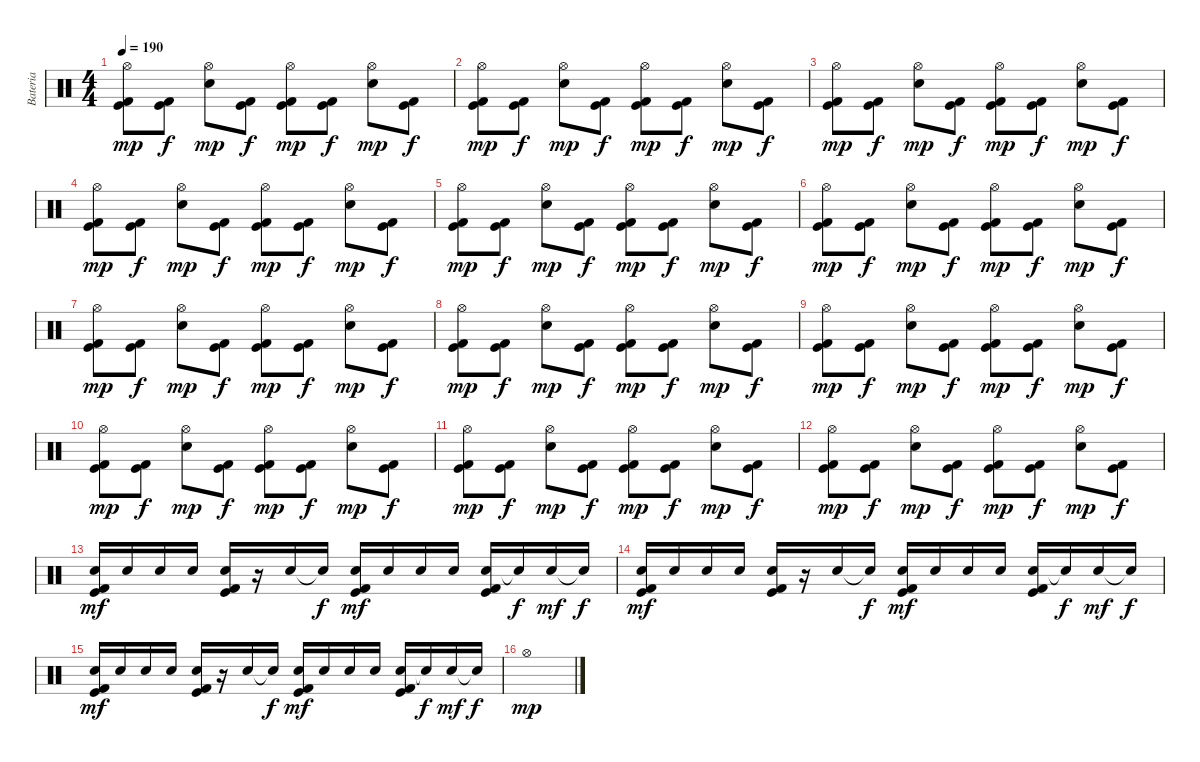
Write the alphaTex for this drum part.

\track ("Bateria" "Bateria") {instrument percussion}
\staff {score}
\articulation defaults
\ts (4 4)
\tempo 190
\clef neutral
\ks c
("Kick (hit) 2" "Kick (hit)" "Hi-Hat (open)").8{dy mp} ("Kick (hit)" "Kick (hit) 2").8{dy f} ("Electric Snare (hit)" "Hi-Hat (open)").8{dy mp} ("Kick (hit) 2" "Kick (hit)").8{dy f} ("Kick (hit) 2" "Kick (hit)" "Hi-Hat (open)").8{dy mp} ("Kick (hit)" "Kick (hit) 2").8{dy f} ("Electric Snare (hit)" "Hi-Hat (open)").8{dy mp} ("Kick (hit)" "Kick (hit) 2").8{dy f} |
("Kick (hit) 2" "Kick (hit)" "Hi-Hat (open)").8{dy mp} ("Kick (hit)" "Kick (hit) 2").8{dy f} ("Electric Snare (hit)" "Hi-Hat (open)").8{dy mp} ("Kick (hit) 2" "Kick (hit)").8{dy f} ("Kick (hit) 2" "Kick (hit)" "Hi-Hat (open)").8{dy mp} ("Kick (hit)" "Kick (hit) 2").8{dy f} ("Electric Snare (hit)" "Hi-Hat (open)").8{dy mp} ("Kick (hit)" "Kick (hit) 2").8{dy f} |
("Kick (hit) 2" "Kick (hit)" "Hi-Hat (open)").8{dy mp} ("Kick (hit)" "Kick (hit) 2").8{dy f} ("Electric Snare (hit)" "Hi-Hat (open)").8{dy mp} ("Kick (hit) 2" "Kick (hit)").8{dy f} ("Kick (hit) 2" "Kick (hit)" "Hi-Hat (open)").8{dy mp} ("Kick (hit)" "Kick (hit) 2").8{dy f} ("Electric Snare (hit)" "Hi-Hat (open)").8{dy mp} ("Kick (hit)" "Kick (hit) 2").8{dy f} |
("Kick (hit) 2" "Kick (hit)" "Hi-Hat (open)").8{dy mp} ("Kick (hit)" "Kick (hit) 2").8{dy f} ("Electric Snare (hit)" "Hi-Hat (open)").8{dy mp} ("Kick (hit) 2" "Kick (hit)").8{dy f} ("Kick (hit) 2" "Kick (hit)" "Hi-Hat (open)").8{dy mp} ("Kick (hit)" "Kick (hit) 2").8{dy f} ("Electric Snare (hit)" "Hi-Hat (open)").8{dy mp} ("Kick (hit)" "Kick (hit) 2").8{dy f} |
("Kick (hit) 2" "Kick (hit)" "Hi-Hat (open)").8{dy mp} ("Kick (hit)" "Kick (hit) 2").8{dy f} ("Electric Snare (hit)" "Hi-Hat (open)").8{dy mp} ("Kick (hit) 2" "Kick (hit)").8{dy f} ("Kick (hit) 2" "Kick (hit)" "Hi-Hat (open)").8{dy mp} ("Kick (hit)" "Kick (hit) 2").8{dy f} ("Electric Snare (hit)" "Hi-Hat (open)").8{dy mp} ("Kick (hit)" "Kick (hit) 2").8{dy f} |
("Kick (hit) 2" "Kick (hit)" "Hi-Hat (open)").8{dy mp} ("Kick (hit)" "Kick (hit) 2").8{dy f} ("Electric Snare (hit)" "Hi-Hat (open)").8{dy mp} ("Kick (hit) 2" "Kick (hit)").8{dy f} ("Kick (hit) 2" "Kick (hit)" "Hi-Hat (open)").8{dy mp} ("Kick (hit)" "Kick (hit) 2").8{dy f} ("Electric Snare (hit)" "Hi-Hat (open)").8{dy mp} ("Kick (hit)" "Kick (hit) 2").8{dy f} |
("Kick (hit) 2" "Kick (hit)" "Hi-Hat (open)").8{dy mp} ("Kick (hit)" "Kick (hit) 2").8{dy f} ("Electric Snare (hit)" "Hi-Hat (open)").8{dy mp} ("Kick (hit) 2" "Kick (hit)").8{dy f} ("Kick (hit) 2" "Kick (hit)" "Hi-Hat (open)").8{dy mp} ("Kick (hit)" "Kick (hit) 2").8{dy f} ("Electric Snare (hit)" "Hi-Hat (open)").8{dy mp} ("Kick (hit)" "Kick (hit) 2").8{dy f} |
("Kick (hit) 2" "Kick (hit)" "Hi-Hat (open)").8{dy mp} ("Kick (hit)" "Kick (hit) 2").8{dy f} ("Electric Snare (hit)" "Hi-Hat (open)").8{dy mp} ("Kick (hit) 2" "Kick (hit)").8{dy f} ("Kick (hit) 2" "Kick (hit)" "Hi-Hat (open)").8{dy mp} ("Kick (hit)" "Kick (hit) 2").8{dy f} ("Electric Snare (hit)" "Hi-Hat (open)").8{dy mp} ("Kick (hit)" "Kick (hit) 2").8{dy f} |
("Kick (hit) 2" "Kick (hit)" "Hi-Hat (open)").8{dy mp} ("Kick (hit)" "Kick (hit) 2").8{dy f} ("Electric Snare (hit)" "Hi-Hat (open)").8{dy mp} ("Kick (hit) 2" "Kick (hit)").8{dy f} ("Kick (hit) 2" "Kick (hit)" "Hi-Hat (open)").8{dy mp} ("Kick (hit)" "Kick (hit) 2").8{dy f} ("Electric Snare (hit)" "Hi-Hat (open)").8{dy mp} ("Kick (hit)" "Kick (hit) 2").8{dy f} |
("Kick (hit) 2" "Kick (hit)" "Hi-Hat (open)").8{dy mp} ("Kick (hit)" "Kick (hit) 2").8{dy f} ("Electric Snare (hit)" "Hi-Hat (open)").8{dy mp} ("Kick (hit) 2" "Kick (hit)").8{dy f} ("Kick (hit) 2" "Kick (hit)" "Hi-Hat (open)").8{dy mp} ("Kick (hit)" "Kick (hit) 2").8{dy f} ("Electric Snare (hit)" "Hi-Hat (open)").8{dy mp} ("Kick (hit)" "Kick (hit) 2").8{dy f} |
("Kick (hit) 2" "Kick (hit)" "Hi-Hat (open)").8{dy mp} ("Kick (hit)" "Kick (hit) 2").8{dy f} ("Electric Snare (hit)" "Hi-Hat (open)").8{dy mp} ("Kick (hit) 2" "Kick (hit)").8{dy f} ("Kick (hit) 2" "Kick (hit)" "Hi-Hat (open)").8{dy mp} ("Kick (hit)" "Kick (hit) 2").8{dy f} ("Electric Snare (hit)" "Hi-Hat (open)").8{dy mp} ("Kick (hit)" "Kick (hit) 2").8{dy f} |
("Kick (hit) 2" "Kick (hit)" "Hi-Hat (open)").8{dy mp} ("Kick (hit)" "Kick (hit) 2").8{dy f} ("Electric Snare (hit)" "Hi-Hat (open)").8{dy mp} ("Kick (hit) 2" "Kick (hit)").8{dy f} ("Kick (hit) 2" "Kick (hit)" "Hi-Hat (open)").8{dy mp} ("Kick (hit)" "Kick (hit) 2").8{dy f} ("Electric Snare (hit)" "Hi-Hat (open)").8{dy mp} ("Kick (hit)" "Kick (hit) 2").8{dy f} |
("Electric Snare (hit)" "Kick (hit)" "Kick (hit) 2").16{dy mf} "Electric Snare (hit)".16 "Electric Snare (hit)".16 "Electric Snare (hit)".16 ("Electric Snare (hit)" "Kick (hit)" "Kick (hit) 2").16 r.16 "Electric Snare (hit)".16 "Electric Snare (hit)"{t}.16{dy f} ("Electric Snare (hit)" "Kick (hit)" "Kick (hit) 2").16{dy mf} "Electric Snare (hit)".16 "Electric Snare (hit)".16 "Electric Snare (hit)".16 ("Electric Snare (hit)" "Kick (hit)" "Kick (hit) 2").16 "Electric Snare (hit)"{t}.16{dy f} "Electric Snare (hit)".16{dy mf} "Electric Snare (hit)"{t}.16{dy f} |
("Electric Snare (hit)" "Kick (hit)" "Kick (hit) 2").16{dy mf} "Electric Snare (hit)".16 "Electric Snare (hit)".16 "Electric Snare (hit)".16 ("Electric Snare (hit)" "Kick (hit)" "Kick (hit) 2").16 r.16 "Electric Snare (hit)".16 "Electric Snare (hit)"{t}.16{dy f} ("Electric Snare (hit)" "Kick (hit)" "Kick (hit) 2").16{dy mf} "Electric Snare (hit)".16 "Electric Snare (hit)".16 "Electric Snare (hit)".16 ("Electric Snare (hit)" "Kick (hit)" "Kick (hit) 2").16 "Electric Snare (hit)"{t}.16{dy f} "Electric Snare (hit)".16{dy mf} "Electric Snare (hit)"{t}.16{dy f} |
("Electric Snare (hit)" "Kick (hit)" "Kick (hit) 2").16{dy mf} "Electric Snare (hit)".16 "Electric Snare (hit)".16 "Electric Snare (hit)".16 ("Electric Snare (hit)" "Kick (hit)" "Kick (hit) 2").16 r.16 "Electric Snare (hit)".16 "Electric Snare (hit)"{t}.16{dy f} ("Electric Snare (hit)" "Kick (hit)" "Kick (hit) 2").16{dy mf} "Electric Snare (hit)".16 "Electric Snare (hit)".16 "Electric Snare (hit)".16 ("Electric Snare (hit)" "Kick (hit)" "Kick (hit) 2").16 "Electric Snare (hit)"{t}.16{dy f} "Electric Snare (hit)".16{dy mf} "Electric Snare (hit)"{t}.16{dy f} |
"Hi-Hat (open)".1{dy mp}
